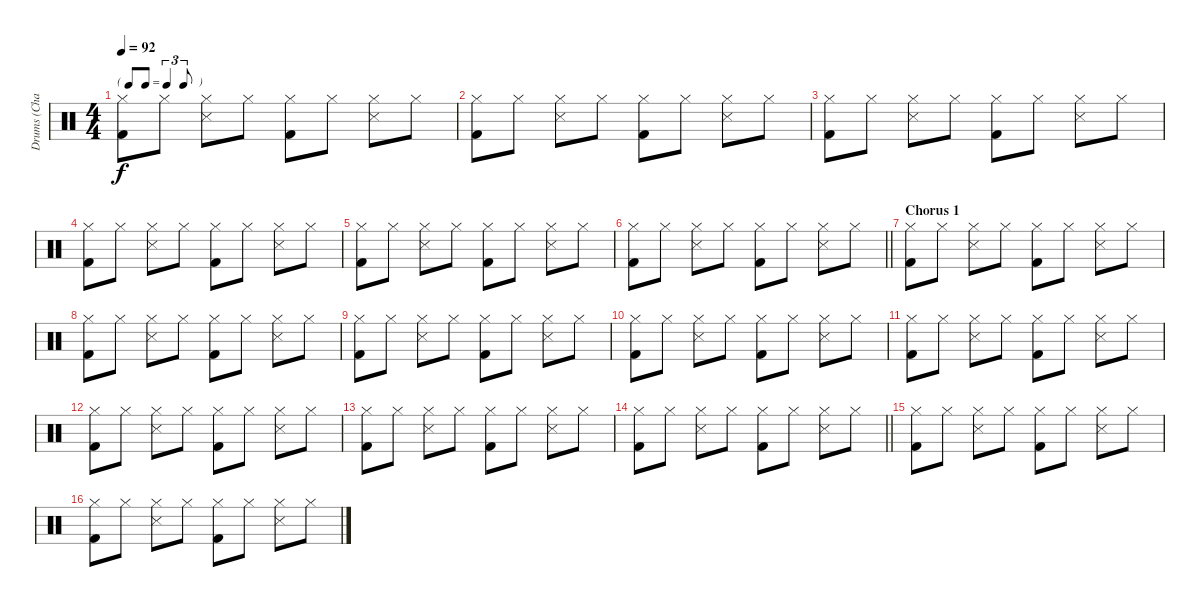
\track ("Drums (Charlie)" "Drums (Cha") {instrument percussion}
\staff {score}
\articulation defaults
\ts (4 4)
\tf triplet8th
\tempo 92
\clef neutral
\ks c
("Hi-Hat (closed)" "Kick (hit) 2").8{dy f} "Hi-Hat (closed)".8 ("Hi-Hat (closed)" "Snare (side stick) 3").8 "Hi-Hat (closed)".8 ("Hi-Hat (closed)" "Kick (hit) 2").8 "Hi-Hat (closed)".8 ("Hi-Hat (closed)" "Snare (side stick) 3").8 "Hi-Hat (closed)".8 |
("Hi-Hat (closed)" "Kick (hit) 2").8 "Hi-Hat (closed)".8 ("Hi-Hat (closed)" "Snare (side stick) 3").8 "Hi-Hat (closed)".8 ("Hi-Hat (closed)" "Kick (hit) 2").8 "Hi-Hat (closed)".8 ("Hi-Hat (closed)" "Snare (side stick) 3").8 "Hi-Hat (closed)".8 |
("Hi-Hat (closed)" "Kick (hit) 2").8 "Hi-Hat (closed)".8 ("Hi-Hat (closed)" "Snare (side stick) 3").8 "Hi-Hat (closed)".8 ("Hi-Hat (closed)" "Kick (hit) 2").8 "Hi-Hat (closed)".8 ("Hi-Hat (closed)" "Snare (side stick) 3").8 "Hi-Hat (closed)".8 |
("Hi-Hat (closed)" "Kick (hit) 2").8 "Hi-Hat (closed)".8 ("Hi-Hat (closed)" "Snare (side stick) 3").8 "Hi-Hat (closed)".8 ("Hi-Hat (closed)" "Kick (hit) 2").8 "Hi-Hat (closed)".8 ("Hi-Hat (closed)" "Snare (side stick) 3").8 "Hi-Hat (closed)".8 |
("Hi-Hat (closed)" "Kick (hit) 2").8 "Hi-Hat (closed)".8 ("Hi-Hat (closed)" "Snare (side stick) 3").8 "Hi-Hat (closed)".8 ("Hi-Hat (closed)" "Kick (hit) 2").8 "Hi-Hat (closed)".8 ("Hi-Hat (closed)" "Snare (side stick) 3").8 "Hi-Hat (closed)".8 |
\barLineRight lightlight
("Hi-Hat (closed)" "Kick (hit) 2").8 "Hi-Hat (closed)".8 ("Hi-Hat (closed)" "Snare (side stick) 3").8 "Hi-Hat (closed)".8 ("Hi-Hat (closed)" "Kick (hit) 2").8 "Hi-Hat (closed)".8 ("Hi-Hat (closed)" "Snare (side stick) 3").8 "Hi-Hat (closed)".8 |
\section ("" "Chorus 1")
("Hi-Hat (closed)" "Kick (hit) 2").8 "Hi-Hat (closed)".8 ("Hi-Hat (closed)" "Snare (side stick) 3").8 "Hi-Hat (closed)".8 ("Hi-Hat (closed)" "Kick (hit) 2").8 "Hi-Hat (closed)".8 ("Hi-Hat (closed)" "Snare (side stick) 3").8 "Hi-Hat (closed)".8 |
("Hi-Hat (closed)" "Kick (hit) 2").8 "Hi-Hat (closed)".8 ("Hi-Hat (closed)" "Snare (side stick) 3").8 "Hi-Hat (closed)".8 ("Hi-Hat (closed)" "Kick (hit) 2").8 "Hi-Hat (closed)".8 ("Hi-Hat (closed)" "Snare (side stick) 3").8 "Hi-Hat (closed)".8 |
("Hi-Hat (closed)" "Kick (hit) 2").8 "Hi-Hat (closed)".8 ("Hi-Hat (closed)" "Snare (side stick) 3").8 "Hi-Hat (closed)".8 ("Hi-Hat (closed)" "Kick (hit) 2").8 "Hi-Hat (closed)".8 ("Hi-Hat (closed)" "Snare (side stick) 3").8 "Hi-Hat (closed)".8 |
("Hi-Hat (closed)" "Kick (hit) 2").8 "Hi-Hat (closed)".8 ("Hi-Hat (closed)" "Snare (side stick) 3").8 "Hi-Hat (closed)".8 ("Hi-Hat (closed)" "Kick (hit) 2").8 "Hi-Hat (closed)".8 ("Hi-Hat (closed)" "Snare (side stick) 3").8 "Hi-Hat (closed)".8 |
("Hi-Hat (closed)" "Kick (hit) 2").8 "Hi-Hat (closed)".8 ("Hi-Hat (closed)" "Snare (side stick) 3").8 "Hi-Hat (closed)".8 ("Hi-Hat (closed)" "Kick (hit) 2").8 "Hi-Hat (closed)".8 ("Hi-Hat (closed)" "Snare (side stick) 3").8 "Hi-Hat (closed)".8 |
("Hi-Hat (closed)" "Kick (hit) 2").8 "Hi-Hat (closed)".8 ("Hi-Hat (closed)" "Snare (side stick) 3").8 "Hi-Hat (closed)".8 ("Hi-Hat (closed)" "Kick (hit) 2").8 "Hi-Hat (closed)".8 ("Hi-Hat (closed)" "Snare (side stick) 3").8 "Hi-Hat (closed)".8 |
("Hi-Hat (closed)" "Kick (hit) 2").8 "Hi-Hat (closed)".8 ("Hi-Hat (closed)" "Snare (side stick) 3").8 "Hi-Hat (closed)".8 ("Hi-Hat (closed)" "Kick (hit) 2").8 "Hi-Hat (closed)".8 ("Hi-Hat (closed)" "Snare (side stick) 3").8 "Hi-Hat (closed)".8 |
\barLineRight lightlight
("Hi-Hat (closed)" "Kick (hit) 2").8 "Hi-Hat (closed)".8 ("Hi-Hat (closed)" "Snare (side stick) 3").8 "Hi-Hat (closed)".8 ("Hi-Hat (closed)" "Kick (hit) 2").8 "Hi-Hat (closed)".8 ("Hi-Hat (closed)" "Snare (side stick) 3").8 "Hi-Hat (closed)".8 |
("Hi-Hat (closed)" "Kick (hit) 2").8 "Hi-Hat (closed)".8 ("Hi-Hat (closed)" "Snare (side stick) 3").8 "Hi-Hat (closed)".8 ("Hi-Hat (closed)" "Kick (hit) 2").8 "Hi-Hat (closed)".8 ("Hi-Hat (closed)" "Snare (side stick) 3").8 "Hi-Hat (closed)".8 |
("Hi-Hat (closed)" "Kick (hit) 2").8 "Hi-Hat (closed)".8 ("Hi-Hat (closed)" "Snare (side stick) 3").8 "Hi-Hat (closed)".8 ("Hi-Hat (closed)" "Kick (hit) 2").8 "Hi-Hat (closed)".8 ("Hi-Hat (closed)" "Snare (side stick) 3").8 "Hi-Hat (closed)".8
